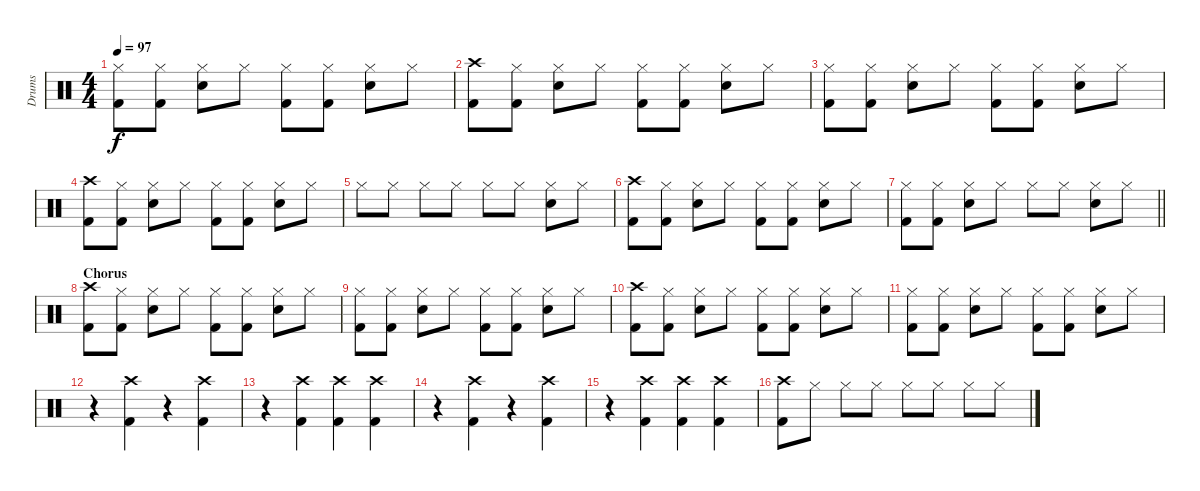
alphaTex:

\track ("Drums" "Drums") {instrument percussion}
\staff {score}
\articulation defaults
\ts (4 4)
\tempo 97
\clef neutral
\ks c
("Hi-Hat (closed)" "Kick (hit) 2").8{dy f} ("Hi-Hat (closed)" "Kick (hit) 2").8 ("Hi-Hat (closed)" "Electric Snare (hit)").8 "Hi-Hat (closed)".8 ("Hi-Hat (closed)" "Kick (hit) 2").8 ("Hi-Hat (closed)" "Kick (hit) 2").8 ("Hi-Hat (closed)" "Electric Snare (hit)").8 "Hi-Hat (closed)".8 |
("Crash high (hit)" "Kick (hit) 2").8 ("Hi-Hat (closed)" "Kick (hit) 2").8 ("Hi-Hat (closed)" "Electric Snare (hit)").8 "Hi-Hat (closed)".8 ("Hi-Hat (closed)" "Kick (hit) 2").8 ("Hi-Hat (closed)" "Kick (hit) 2").8 ("Hi-Hat (closed)" "Electric Snare (hit)").8 "Hi-Hat (closed)".8 |
("Hi-Hat (closed)" "Kick (hit) 2").8 ("Hi-Hat (closed)" "Kick (hit) 2").8 ("Hi-Hat (closed)" "Electric Snare (hit)").8 "Hi-Hat (closed)".8 ("Hi-Hat (closed)" "Kick (hit) 2").8 ("Hi-Hat (closed)" "Kick (hit) 2").8 ("Hi-Hat (closed)" "Electric Snare (hit)").8 "Hi-Hat (closed)".8 |
("Crash high (hit)" "Kick (hit) 2").8 ("Hi-Hat (closed)" "Kick (hit) 2").8 ("Hi-Hat (closed)" "Electric Snare (hit)").8 "Hi-Hat (closed)".8 ("Hi-Hat (closed)" "Kick (hit) 2").8 ("Hi-Hat (closed)" "Kick (hit) 2").8 ("Hi-Hat (closed)" "Electric Snare (hit)").8 "Hi-Hat (closed)".8 |
"Hi-Hat (closed)".8 "Hi-Hat (closed)".8 "Hi-Hat (closed)".8 "Hi-Hat (closed)".8 "Hi-Hat (closed)".8 "Hi-Hat (closed)".8 ("Hi-Hat (closed)" "Electric Snare (hit)").8 "Hi-Hat (closed)".8 |
("Crash high (hit)" "Kick (hit) 2").8 ("Hi-Hat (closed)" "Kick (hit) 2").8 ("Hi-Hat (closed)" "Electric Snare (hit)").8 "Hi-Hat (closed)".8 ("Hi-Hat (closed)" "Kick (hit) 2").8 ("Hi-Hat (closed)" "Kick (hit) 2").8 ("Hi-Hat (closed)" "Electric Snare (hit)").8 "Hi-Hat (closed)".8 |
\barLineRight lightlight
("Hi-Hat (closed)" "Kick (hit) 2").8 ("Hi-Hat (closed)" "Kick (hit) 2").8 ("Hi-Hat (closed)" "Electric Snare (hit)").8 "Hi-Hat (closed)".8 "Hi-Hat (closed)".8 "Hi-Hat (closed)".8 ("Hi-Hat (closed)" "Electric Snare (hit)").8 "Hi-Hat (closed)".8 |
\section ("" "Chorus")
("Crash high (hit)" "Kick (hit) 2").8 ("Hi-Hat (closed)" "Kick (hit) 2").8 ("Hi-Hat (closed)" "Electric Snare (hit)").8 "Hi-Hat (closed)".8 ("Hi-Hat (closed)" "Kick (hit) 2").8 ("Hi-Hat (closed)" "Kick (hit) 2").8 ("Hi-Hat (closed)" "Electric Snare (hit)").8 "Hi-Hat (closed)".8 |
("Hi-Hat (closed)" "Kick (hit) 2").8 ("Hi-Hat (closed)" "Kick (hit) 2").8 ("Hi-Hat (closed)" "Electric Snare (hit)").8 "Hi-Hat (closed)".8 ("Hi-Hat (closed)" "Kick (hit) 2").8 ("Hi-Hat (closed)" "Kick (hit) 2").8 ("Hi-Hat (closed)" "Electric Snare (hit)").8 "Hi-Hat (closed)".8 |
("Crash high (hit)" "Kick (hit) 2").8 ("Hi-Hat (closed)" "Kick (hit) 2").8 ("Hi-Hat (closed)" "Electric Snare (hit)").8 "Hi-Hat (closed)".8 ("Hi-Hat (closed)" "Kick (hit) 2").8 ("Hi-Hat (closed)" "Kick (hit) 2").8 ("Hi-Hat (closed)" "Electric Snare (hit)").8 "Hi-Hat (closed)".8 |
("Hi-Hat (closed)" "Kick (hit) 2").8 ("Hi-Hat (closed)" "Kick (hit) 2").8 ("Hi-Hat (closed)" "Electric Snare (hit)").8 "Hi-Hat (closed)".8 ("Hi-Hat (closed)" "Kick (hit) 2").8 ("Hi-Hat (closed)" "Kick (hit) 2").8 ("Hi-Hat (closed)" "Electric Snare (hit)").8 "Hi-Hat (closed)".8 |
r.4 ("Crash high (hit)" "Kick (hit) 2").4 r.4 ("Crash high (hit)" "Kick (hit) 2").4 |
r.4 ("Crash high (hit)" "Kick (hit) 2").4 ("Crash high (hit)" "Kick (hit) 2").4 ("Crash high (hit)" "Kick (hit) 2").4 |
r.4 ("Crash high (hit)" "Kick (hit) 2").4 r.4 ("Crash high (hit)" "Kick (hit) 2").4 |
r.4 ("Crash high (hit)" "Kick (hit) 2").4 ("Crash high (hit)" "Kick (hit) 2").4 ("Crash high (hit)" "Kick (hit) 2").4 |
("Crash high (hit)" "Kick (hit) 2").8 "Hi-Hat (closed)".8 "Hi-Hat (closed)".8 "Hi-Hat (closed)".8 "Hi-Hat (closed)".8 "Hi-Hat (closed)".8 "Hi-Hat (closed)".8 "Hi-Hat (closed)".8
